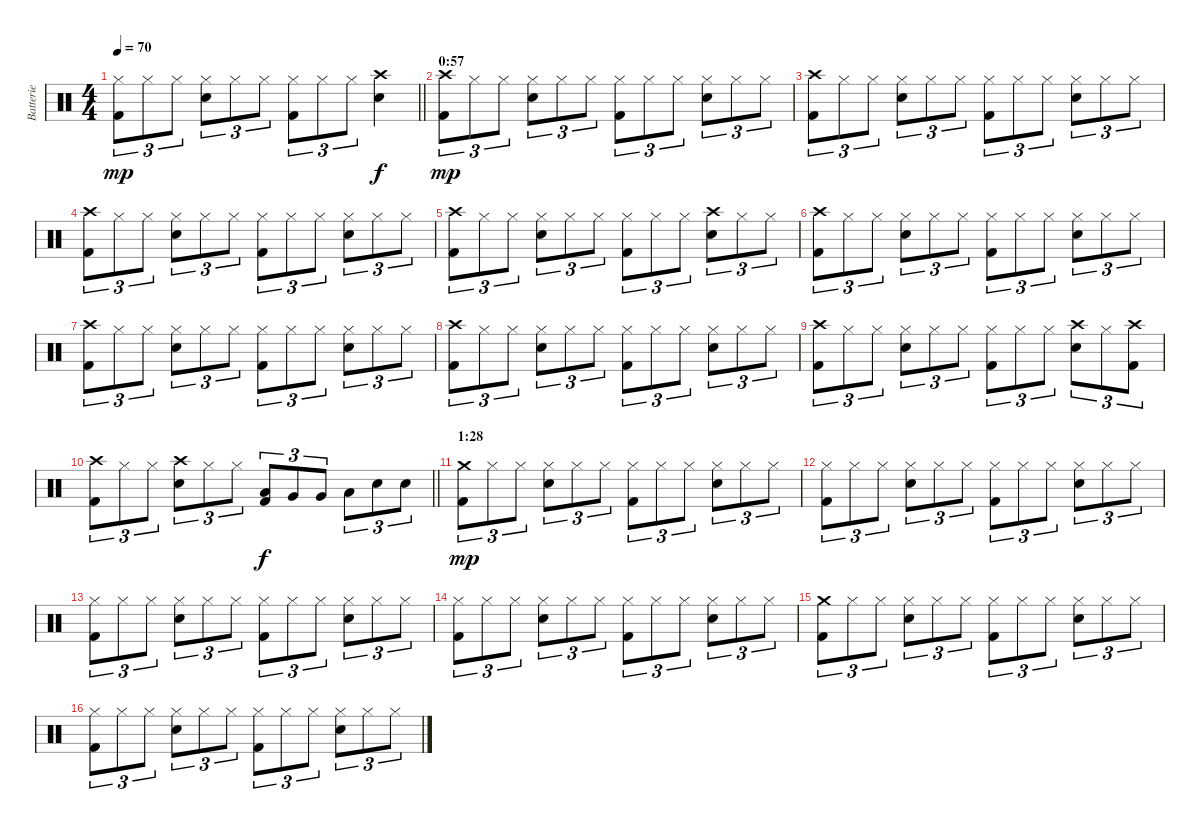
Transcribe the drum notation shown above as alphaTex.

\track ("Batterie" "Batterie") {instrument percussion}
\staff {score}
\articulation defaults
\ts (4 4)
\tempo 70
\clef neutral
\barLineRight lightlight
\ks c
("Hi-Hat (closed)" "Kick (hit) 2").8{tu (3 2) dy mp} "Hi-Hat (closed)".8{tu (3 2)} "Hi-Hat (closed)".8{tu (3 2)} ("Hi-Hat (closed)" "Snare (hit) 2").8{tu (3 2)} "Hi-Hat (closed)".8{tu (3 2)} "Hi-Hat (closed)".8{tu (3 2)} ("Hi-Hat (closed)" "Kick (hit) 2").8{tu (3 2)} "Hi-Hat (closed)".8{tu (3 2)} "Hi-Hat (closed)".8{tu (3 2)} ("Crash high (hit)" "Snare (hit) 2").4{dy f} |
\section ("" "0:57")
("Crash high (hit)" "Kick (hit) 2").8{tu (3 2) dy mp} "Hi-Hat (closed)".8{tu (3 2)} "Hi-Hat (closed)".8{tu (3 2)} ("Hi-Hat (closed)" "Snare (hit) 2").8{tu (3 2)} "Hi-Hat (closed)".8{tu (3 2)} "Hi-Hat (closed)".8{tu (3 2)} ("Hi-Hat (closed)" "Kick (hit) 2").8{tu (3 2)} "Hi-Hat (closed)".8{tu (3 2)} "Hi-Hat (closed)".8{tu (3 2)} ("Hi-Hat (closed)" "Snare (hit) 2").8{tu (3 2)} "Hi-Hat (closed)".8{tu (3 2)} "Hi-Hat (closed)".8{tu (3 2)} |
("Crash high (hit)" "Kick (hit) 2").8{tu (3 2)} "Hi-Hat (closed)".8{tu (3 2)} "Hi-Hat (closed)".8{tu (3 2)} ("Hi-Hat (closed)" "Snare (hit) 2").8{tu (3 2)} "Hi-Hat (closed)".8{tu (3 2)} "Hi-Hat (closed)".8{tu (3 2)} ("Hi-Hat (closed)" "Kick (hit) 2").8{tu (3 2)} "Hi-Hat (closed)".8{tu (3 2)} "Hi-Hat (closed)".8{tu (3 2)} ("Hi-Hat (closed)" "Snare (hit) 2").8{tu (3 2)} "Hi-Hat (closed)".8{tu (3 2)} "Hi-Hat (closed)".8{tu (3 2)} |
("Crash high (hit)" "Kick (hit) 2").8{tu (3 2)} "Hi-Hat (closed)".8{tu (3 2)} "Hi-Hat (closed)".8{tu (3 2)} ("Hi-Hat (closed)" "Snare (hit) 2").8{tu (3 2)} "Hi-Hat (closed)".8{tu (3 2)} "Hi-Hat (closed)".8{tu (3 2)} ("Hi-Hat (closed)" "Kick (hit) 2").8{tu (3 2)} "Hi-Hat (closed)".8{tu (3 2)} "Hi-Hat (closed)".8{tu (3 2)} ("Hi-Hat (closed)" "Snare (hit) 2").8{tu (3 2)} "Hi-Hat (closed)".8{tu (3 2)} "Hi-Hat (closed)".8{tu (3 2)} |
("Crash high (hit)" "Kick (hit) 2").8{tu (3 2)} "Hi-Hat (closed)".8{tu (3 2)} "Hi-Hat (closed)".8{tu (3 2)} ("Hi-Hat (closed)" "Snare (hit) 2").8{tu (3 2)} "Hi-Hat (closed)".8{tu (3 2)} "Hi-Hat (closed)".8{tu (3 2)} ("Hi-Hat (closed)" "Kick (hit) 2").8{tu (3 2)} "Hi-Hat (closed)".8{tu (3 2)} "Hi-Hat (closed)".8{tu (3 2)} ("Crash high (hit)" "Snare (hit) 2").8{tu (3 2)} "Hi-Hat (closed)".8{tu (3 2)} "Hi-Hat (closed)".8{tu (3 2)} |
("Crash high (hit)" "Kick (hit) 2").8{tu (3 2)} "Hi-Hat (closed)".8{tu (3 2)} "Hi-Hat (closed)".8{tu (3 2)} ("Hi-Hat (closed)" "Snare (hit) 2").8{tu (3 2)} "Hi-Hat (closed)".8{tu (3 2)} "Hi-Hat (closed)".8{tu (3 2)} ("Hi-Hat (closed)" "Kick (hit) 2").8{tu (3 2)} "Hi-Hat (closed)".8{tu (3 2)} "Hi-Hat (closed)".8{tu (3 2)} ("Hi-Hat (closed)" "Snare (hit) 2").8{tu (3 2)} "Hi-Hat (closed)".8{tu (3 2)} "Hi-Hat (closed)".8{tu (3 2)} |
("Crash high (hit)" "Kick (hit) 2").8{tu (3 2)} "Hi-Hat (closed)".8{tu (3 2)} "Hi-Hat (closed)".8{tu (3 2)} ("Hi-Hat (closed)" "Snare (hit) 2").8{tu (3 2)} "Hi-Hat (closed)".8{tu (3 2)} "Hi-Hat (closed)".8{tu (3 2)} ("Hi-Hat (closed)" "Kick (hit) 2").8{tu (3 2)} "Hi-Hat (closed)".8{tu (3 2)} "Hi-Hat (closed)".8{tu (3 2)} ("Hi-Hat (closed)" "Snare (hit) 2").8{tu (3 2)} "Hi-Hat (closed)".8{tu (3 2)} "Hi-Hat (closed)".8{tu (3 2)} |
("Crash high (hit)" "Kick (hit) 2").8{tu (3 2)} "Hi-Hat (closed)".8{tu (3 2)} "Hi-Hat (closed)".8{tu (3 2)} ("Hi-Hat (closed)" "Snare (hit) 2").8{tu (3 2)} "Hi-Hat (closed)".8{tu (3 2)} "Hi-Hat (closed)".8{tu (3 2)} ("Hi-Hat (closed)" "Kick (hit) 2").8{tu (3 2)} "Hi-Hat (closed)".8{tu (3 2)} "Hi-Hat (closed)".8{tu (3 2)} ("Hi-Hat (closed)" "Snare (hit) 2").8{tu (3 2)} "Hi-Hat (closed)".8{tu (3 2)} "Hi-Hat (closed)".8{tu (3 2)} |
("Crash high (hit)" "Kick (hit) 2").8{tu (3 2)} "Hi-Hat (closed)".8{tu (3 2)} "Hi-Hat (closed)".8{tu (3 2)} ("Hi-Hat (closed)" "Snare (hit) 2").8{tu (3 2)} "Hi-Hat (closed)".8{tu (3 2)} "Hi-Hat (closed)".8{tu (3 2)} ("Hi-Hat (closed)" "Kick (hit) 2").8{tu (3 2)} "Hi-Hat (closed)".8{tu (3 2)} "Hi-Hat (closed)".8{tu (3 2)} ("Crash high (hit)" "Snare (hit) 2").8{tu (3 2)} "Hi-Hat (closed)".8{tu (3 2)} ("Crash high (hit)" "Kick (hit) 2").8{tu (3 2)} |
\barLineRight lightlight
("Crash high (hit)" "Kick (hit) 2").8{tu (3 2)} "Hi-Hat (closed)".8{tu (3 2)} "Hi-Hat (closed)".8{tu (3 2)} ("Crash high (hit)" "Snare (hit) 2").8{tu (3 2)} "Hi-Hat (closed)".8{tu (3 2)} "Hi-Hat (closed)".8{tu (3 2)} ("Low Tom (hit)" "Kick (hit) 2").8{tu (3 2) dy f} "Very Low Tom (hit)".8{tu (3 2)} "Very Low Tom (hit)".8{tu (3 2)} "Low Tom (hit)".8{tu (3 2)} "Snare (hit) 2".8{tu (3 2)} "Snare (hit) 2".8{tu (3 2)} |
\section ("" "1:28")
("Crash medium (hit)" "Kick (hit) 2").8{tu (3 2) dy mp} "Hi-Hat (closed)".8{tu (3 2)} "Hi-Hat (closed)".8{tu (3 2)} ("Hi-Hat (closed)" "Snare (hit) 2").8{tu (3 2)} "Hi-Hat (closed)".8{tu (3 2)} "Hi-Hat (closed)".8{tu (3 2)} ("Hi-Hat (closed)" "Kick (hit) 2").8{tu (3 2)} "Hi-Hat (closed)".8{tu (3 2)} "Hi-Hat (closed)".8{tu (3 2)} ("Hi-Hat (closed)" "Snare (hit) 2").8{tu (3 2)} "Hi-Hat (closed)".8{tu (3 2)} "Hi-Hat (closed)".8{tu (3 2)} |
("Hi-Hat (closed)" "Kick (hit) 2").8{tu (3 2)} "Hi-Hat (closed)".8{tu (3 2)} "Hi-Hat (closed)".8{tu (3 2)} ("Hi-Hat (closed)" "Snare (hit) 2").8{tu (3 2)} "Hi-Hat (closed)".8{tu (3 2)} "Hi-Hat (closed)".8{tu (3 2)} ("Hi-Hat (closed)" "Kick (hit) 2").8{tu (3 2)} "Hi-Hat (closed)".8{tu (3 2)} "Hi-Hat (closed)".8{tu (3 2)} ("Hi-Hat (closed)" "Snare (hit) 2").8{tu (3 2)} "Hi-Hat (closed)".8{tu (3 2)} "Hi-Hat (closed)".8{tu (3 2)} |
("Hi-Hat (closed)" "Kick (hit) 2").8{tu (3 2)} "Hi-Hat (closed)".8{tu (3 2)} "Hi-Hat (closed)".8{tu (3 2)} ("Hi-Hat (closed)" "Snare (hit) 2").8{tu (3 2)} "Hi-Hat (closed)".8{tu (3 2)} "Hi-Hat (closed)".8{tu (3 2)} ("Hi-Hat (closed)" "Kick (hit) 2").8{tu (3 2)} "Hi-Hat (closed)".8{tu (3 2)} "Hi-Hat (closed)".8{tu (3 2)} ("Hi-Hat (closed)" "Snare (hit) 2").8{tu (3 2)} "Hi-Hat (closed)".8{tu (3 2)} "Hi-Hat (closed)".8{tu (3 2)} |
("Hi-Hat (closed)" "Kick (hit) 2").8{tu (3 2)} "Hi-Hat (closed)".8{tu (3 2)} "Hi-Hat (closed)".8{tu (3 2)} ("Hi-Hat (closed)" "Snare (hit) 2").8{tu (3 2)} "Hi-Hat (closed)".8{tu (3 2)} "Hi-Hat (closed)".8{tu (3 2)} ("Hi-Hat (closed)" "Kick (hit) 2").8{tu (3 2)} "Hi-Hat (closed)".8{tu (3 2)} "Hi-Hat (closed)".8{tu (3 2)} ("Hi-Hat (closed)" "Snare (hit) 2").8{tu (3 2)} "Hi-Hat (closed)".8{tu (3 2)} "Hi-Hat (closed)".8{tu (3 2)} |
("Crash medium (hit)" "Kick (hit) 2").8{tu (3 2)} "Hi-Hat (closed)".8{tu (3 2)} "Hi-Hat (closed)".8{tu (3 2)} ("Hi-Hat (closed)" "Snare (hit) 2").8{tu (3 2)} "Hi-Hat (closed)".8{tu (3 2)} "Hi-Hat (closed)".8{tu (3 2)} ("Hi-Hat (closed)" "Kick (hit) 2").8{tu (3 2)} "Hi-Hat (closed)".8{tu (3 2)} "Hi-Hat (closed)".8{tu (3 2)} ("Hi-Hat (closed)" "Snare (hit) 2").8{tu (3 2)} "Hi-Hat (closed)".8{tu (3 2)} "Hi-Hat (closed)".8{tu (3 2)} |
("Hi-Hat (closed)" "Kick (hit) 2").8{tu (3 2)} "Hi-Hat (closed)".8{tu (3 2)} "Hi-Hat (closed)".8{tu (3 2)} ("Hi-Hat (closed)" "Snare (hit) 2").8{tu (3 2)} "Hi-Hat (closed)".8{tu (3 2)} "Hi-Hat (closed)".8{tu (3 2)} ("Hi-Hat (closed)" "Kick (hit) 2").8{tu (3 2)} "Hi-Hat (closed)".8{tu (3 2)} "Hi-Hat (closed)".8{tu (3 2)} ("Hi-Hat (closed)" "Snare (hit) 2").8{tu (3 2)} "Hi-Hat (closed)".8{tu (3 2)} "Hi-Hat (closed)".8{tu (3 2)}
